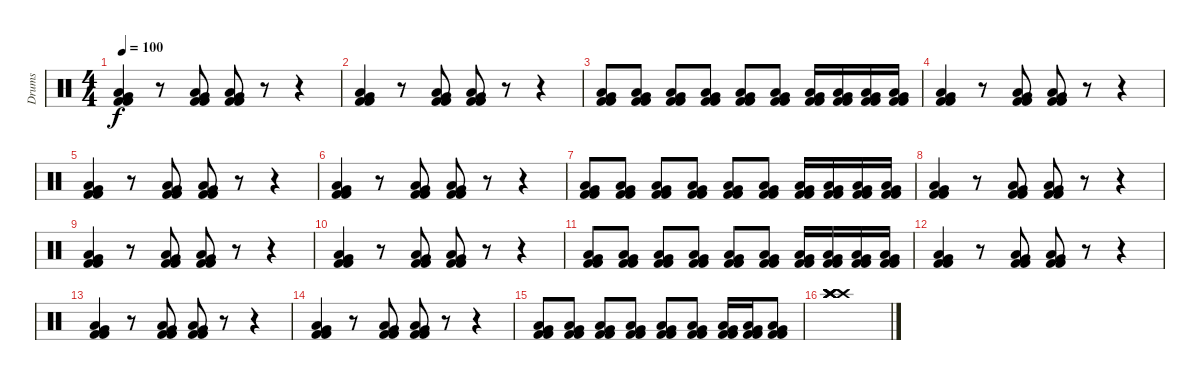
\track ("Drums" "Drums") {instrument percussion}
\staff {score}
\articulation defaults
\ts (4 4)
\tempo 100
\clef neutral
\ks c
("Kick (hit) 2" "Low Floor Tom (hit)" "Very Low Tom (hit)" "Kick (hit) 2").4{dy f} r.8 ("Kick (hit) 2" "Low Floor Tom (hit)" "Very Low Tom (hit)" "Kick (hit) 2").8 ("Kick (hit) 2" "Low Floor Tom (hit)" "Very Low Tom (hit)" "Kick (hit) 2").8 r.8 r.4 |
("Kick (hit) 2" "Low Floor Tom (hit)" "Very Low Tom (hit)" "Kick (hit) 2").4 r.8 ("Kick (hit) 2" "Low Floor Tom (hit)" "Very Low Tom (hit)" "Kick (hit) 2").8 ("Kick (hit) 2" "Low Floor Tom (hit)" "Very Low Tom (hit)" "Kick (hit) 2").8 r.8 r.4 |
("Kick (hit) 2" "Kick (hit) 2" "Low Floor Tom (hit)" "Very Low Tom (hit)").8 ("Kick (hit) 2" "Kick (hit) 2" "Low Floor Tom (hit)" "Very Low Tom (hit)").8 ("Kick (hit) 2" "Kick (hit) 2" "Low Floor Tom (hit)" "Very Low Tom (hit)").8 ("Kick (hit) 2" "Kick (hit) 2" "Low Floor Tom (hit)" "Very Low Tom (hit)").8 ("Kick (hit) 2" "Kick (hit) 2" "Low Floor Tom (hit)" "Very Low Tom (hit)").8 ("Kick (hit) 2" "Kick (hit) 2" "Low Floor Tom (hit)" "Very Low Tom (hit)").8 ("Kick (hit) 2" "Kick (hit) 2" "Low Floor Tom (hit)" "Very Low Tom (hit)").16 ("Kick (hit) 2" "Kick (hit) 2" "Low Floor Tom (hit)" "Very Low Tom (hit)").16 ("Kick (hit) 2" "Kick (hit) 2" "Low Floor Tom (hit)" "Very Low Tom (hit)").16 ("Kick (hit) 2" "Kick (hit) 2" "Low Floor Tom (hit)" "Very Low Tom (hit)").16 |
("Kick (hit) 2" "Low Floor Tom (hit)" "Very Low Tom (hit)" "Kick (hit) 2").4 r.8 ("Kick (hit) 2" "Low Floor Tom (hit)" "Very Low Tom (hit)" "Kick (hit) 2").8 ("Kick (hit) 2" "Low Floor Tom (hit)" "Very Low Tom (hit)" "Kick (hit) 2").8 r.8 r.4 |
("Kick (hit) 2" "Low Floor Tom (hit)" "Very Low Tom (hit)" "Kick (hit) 2").4 r.8 ("Kick (hit) 2" "Low Floor Tom (hit)" "Very Low Tom (hit)" "Kick (hit) 2").8 ("Kick (hit) 2" "Low Floor Tom (hit)" "Very Low Tom (hit)" "Kick (hit) 2").8 r.8 r.4 |
("Kick (hit) 2" "Low Floor Tom (hit)" "Very Low Tom (hit)" "Kick (hit) 2").4 r.8 ("Kick (hit) 2" "Low Floor Tom (hit)" "Very Low Tom (hit)" "Kick (hit) 2").8 ("Kick (hit) 2" "Low Floor Tom (hit)" "Very Low Tom (hit)" "Kick (hit) 2").8 r.8 r.4 |
("Kick (hit) 2" "Kick (hit) 2" "Low Floor Tom (hit)" "Very Low Tom (hit)").8 ("Kick (hit) 2" "Kick (hit) 2" "Low Floor Tom (hit)" "Very Low Tom (hit)").8 ("Kick (hit) 2" "Kick (hit) 2" "Low Floor Tom (hit)" "Very Low Tom (hit)").8 ("Kick (hit) 2" "Kick (hit) 2" "Low Floor Tom (hit)" "Very Low Tom (hit)").8 ("Kick (hit) 2" "Kick (hit) 2" "Low Floor Tom (hit)" "Very Low Tom (hit)").8 ("Kick (hit) 2" "Kick (hit) 2" "Low Floor Tom (hit)" "Very Low Tom (hit)").8 ("Kick (hit) 2" "Kick (hit) 2" "Low Floor Tom (hit)" "Very Low Tom (hit)").16 ("Kick (hit) 2" "Kick (hit) 2" "Low Floor Tom (hit)" "Very Low Tom (hit)").16 ("Kick (hit) 2" "Kick (hit) 2" "Low Floor Tom (hit)" "Very Low Tom (hit)").16 ("Kick (hit) 2" "Kick (hit) 2" "Low Floor Tom (hit)" "Very Low Tom (hit)").16 |
("Kick (hit) 2" "Low Floor Tom (hit)" "Very Low Tom (hit)" "Kick (hit) 2").4 r.8 ("Kick (hit) 2" "Low Floor Tom (hit)" "Very Low Tom (hit)" "Kick (hit) 2").8 ("Kick (hit) 2" "Low Floor Tom (hit)" "Very Low Tom (hit)" "Kick (hit) 2").8 r.8 r.4 |
("Kick (hit) 2" "Low Floor Tom (hit)" "Very Low Tom (hit)" "Kick (hit) 2").4 r.8 ("Kick (hit) 2" "Low Floor Tom (hit)" "Very Low Tom (hit)" "Kick (hit) 2").8 ("Kick (hit) 2" "Low Floor Tom (hit)" "Very Low Tom (hit)" "Kick (hit) 2").8 r.8 r.4 |
("Kick (hit) 2" "Low Floor Tom (hit)" "Very Low Tom (hit)" "Kick (hit) 2").4 r.8 ("Kick (hit) 2" "Low Floor Tom (hit)" "Very Low Tom (hit)" "Kick (hit) 2").8 ("Kick (hit) 2" "Low Floor Tom (hit)" "Very Low Tom (hit)" "Kick (hit) 2").8 r.8 r.4 |
("Kick (hit) 2" "Kick (hit) 2" "Low Floor Tom (hit)" "Very Low Tom (hit)").8 ("Kick (hit) 2" "Kick (hit) 2" "Low Floor Tom (hit)" "Very Low Tom (hit)").8 ("Kick (hit) 2" "Kick (hit) 2" "Low Floor Tom (hit)" "Very Low Tom (hit)").8 ("Kick (hit) 2" "Kick (hit) 2" "Low Floor Tom (hit)" "Very Low Tom (hit)").8 ("Kick (hit) 2" "Kick (hit) 2" "Low Floor Tom (hit)" "Very Low Tom (hit)").8 ("Kick (hit) 2" "Kick (hit) 2" "Low Floor Tom (hit)" "Very Low Tom (hit)").8 ("Kick (hit) 2" "Kick (hit) 2" "Low Floor Tom (hit)" "Very Low Tom (hit)").16 ("Kick (hit) 2" "Kick (hit) 2" "Low Floor Tom (hit)" "Very Low Tom (hit)").16 ("Kick (hit) 2" "Kick (hit) 2" "Low Floor Tom (hit)" "Very Low Tom (hit)").16 ("Kick (hit) 2" "Kick (hit) 2" "Low Floor Tom (hit)" "Very Low Tom (hit)").16 |
("Kick (hit) 2" "Low Floor Tom (hit)" "Very Low Tom (hit)" "Kick (hit) 2").4 r.8 ("Kick (hit) 2" "Low Floor Tom (hit)" "Very Low Tom (hit)" "Kick (hit) 2").8 ("Kick (hit) 2" "Low Floor Tom (hit)" "Very Low Tom (hit)" "Kick (hit) 2").8 r.8 r.4 |
("Kick (hit) 2" "Low Floor Tom (hit)" "Very Low Tom (hit)" "Kick (hit) 2").4 r.8 ("Kick (hit) 2" "Low Floor Tom (hit)" "Very Low Tom (hit)" "Kick (hit) 2").8 ("Kick (hit) 2" "Low Floor Tom (hit)" "Very Low Tom (hit)" "Kick (hit) 2").8 r.8 r.4 |
("Kick (hit) 2" "Low Floor Tom (hit)" "Very Low Tom (hit)" "Kick (hit) 2").4 r.8 ("Kick (hit) 2" "Low Floor Tom (hit)" "Very Low Tom (hit)" "Kick (hit) 2").8 ("Kick (hit) 2" "Low Floor Tom (hit)" "Very Low Tom (hit)" "Kick (hit) 2").8 r.8 r.4 |
("Kick (hit) 2" "Kick (hit) 2" "Low Floor Tom (hit)" "Very Low Tom (hit)").8 ("Kick (hit) 2" "Kick (hit) 2" "Low Floor Tom (hit)" "Very Low Tom (hit)").8 ("Kick (hit) 2" "Kick (hit) 2" "Low Floor Tom (hit)" "Very Low Tom (hit)").8 ("Kick (hit) 2" "Kick (hit) 2" "Low Floor Tom (hit)" "Very Low Tom (hit)").8 ("Kick (hit) 2" "Kick (hit) 2" "Low Floor Tom (hit)" "Very Low Tom (hit)").8 ("Kick (hit) 2" "Kick (hit) 2" "Low Floor Tom (hit)" "Very Low Tom (hit)").8 ("Kick (hit) 2" "Kick (hit) 2" "Low Floor Tom (hit)" "Very Low Tom (hit)").16 ("Kick (hit) 2" "Kick (hit) 2" "Low Floor Tom (hit)" "Very Low Tom (hit)").16 ("Kick (hit) 2" "Kick (hit) 2" "Low Floor Tom (hit)" "Very Low Tom (hit)").8 |
("Crash high (hit)" "Crash high (hit)" "Crash high (hit)" "Crash high (hit)" "Crash high (hit)" "Crash high (hit)").1
